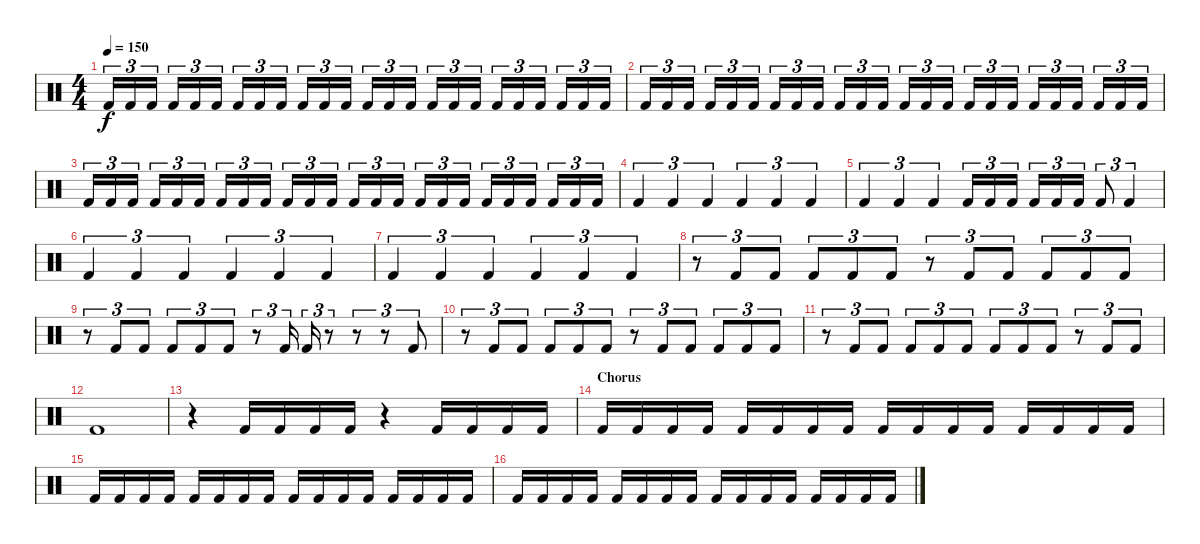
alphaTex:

\track "" {instrument percussion}
\staff {score}
\articulation defaults
\ts (4 4)
\tempo 150
\clef neutral
\ks c "Kick (hit) 2".16{tu (3 2) dy f} "Kick (hit) 2".16{tu (3 2)} "Kick (hit) 2".16{tu (3 2)} "Kick (hit) 2".16{tu (3 2)} "Kick (hit) 2".16{tu (3 2)} "Kick (hit) 2".16{tu (3 2)} "Kick (hit) 2".16{tu (3 2)} "Kick (hit) 2".16{tu (3 2)} "Kick (hit) 2".16{tu (3 2)} "Kick (hit) 2".16{tu (3 2)} "Kick (hit) 2".16{tu (3 2)} "Kick (hit) 2".16{tu (3 2)} "Kick (hit) 2".16{tu (3 2)} "Kick (hit) 2".16{tu (3 2)} "Kick (hit) 2".16{tu (3 2)} "Kick (hit) 2".16{tu (3 2)} "Kick (hit) 2".16{tu (3 2)} "Kick (hit) 2".16{tu (3 2)} "Kick (hit) 2".16{tu (3 2)} "Kick (hit) 2".16{tu (3 2)} "Kick (hit) 2".16{tu (3 2)} "Kick (hit) 2".16{tu (3 2)} "Kick (hit) 2".16{tu (3 2)} "Kick (hit) 2".16{tu (3 2)}
|
"Kick (hit) 2".16{tu (3 2)} "Kick (hit) 2".16{tu (3 2)} "Kick (hit) 2".16{tu (3 2)} "Kick (hit) 2".16{tu (3 2)} "Kick (hit) 2".16{tu (3 2)} "Kick (hit) 2".16{tu (3 2)} "Kick (hit) 2".16{tu (3 2)} "Kick (hit) 2".16{tu (3 2)} "Kick (hit) 2".16{tu (3 2)} "Kick (hit) 2".16{tu (3 2)} "Kick (hit) 2".16{tu (3 2)} "Kick (hit) 2".16{tu (3 2)} "Kick (hit) 2".16{tu (3 2)} "Kick (hit) 2".16{tu (3 2)} "Kick (hit) 2".16{tu (3 2)} "Kick (hit) 2".16{tu (3 2)} "Kick (hit) 2".16{tu (3 2)} "Kick (hit) 2".16{tu (3 2)} "Kick (hit) 2".16{tu (3 2)} "Kick (hit) 2".16{tu (3 2)} "Kick (hit) 2".16{tu (3 2)} "Kick (hit) 2".16{tu (3 2)} "Kick (hit) 2".16{tu (3 2)} "Kick (hit) 2".16{tu (3 2)} |
"Kick (hit) 2".16{tu (3 2)} "Kick (hit) 2".16{tu (3 2)} "Kick (hit) 2".16{tu (3 2)} "Kick (hit) 2".16{tu (3 2)} "Kick (hit) 2".16{tu (3 2)} "Kick (hit) 2".16{tu (3 2)} "Kick (hit) 2".16{tu (3 2)} "Kick (hit) 2".16{tu (3 2)} "Kick (hit) 2".16{tu (3 2)} "Kick (hit) 2".16{tu (3 2)} "Kick (hit) 2".16{tu (3 2)} "Kick (hit) 2".16{tu (3 2)} "Kick (hit) 2".16{tu (3 2)} "Kick (hit) 2".16{tu (3 2)} "Kick (hit) 2".16{tu (3 2)} "Kick (hit) 2".16{tu (3 2)} "Kick (hit) 2".16{tu (3 2)} "Kick (hit) 2".16{tu (3 2)} "Kick (hit) 2".16{tu (3 2)} "Kick (hit) 2".16{tu (3 2)} "Kick (hit) 2".16{tu (3 2)} "Kick (hit) 2".16{tu (3 2)} "Kick (hit) 2".16{tu (3 2)} "Kick (hit) 2".16{tu (3 2)} |
"Kick (hit) 2".4{tu (3 2)} "Kick (hit) 2".4{tu (3 2)} "Kick (hit) 2".4{tu (3 2)} "Kick (hit) 2".4{tu (3 2)} "Kick (hit) 2".4{tu (3 2)} "Kick (hit) 2".4{tu (3 2)} |
"Kick (hit) 2".4{tu (3 2)} "Kick (hit) 2".4{tu (3 2)} "Kick (hit) 2".4{tu (3 2)} "Kick (hit) 2".16{tu (3 2)} "Kick (hit) 2".16{tu (3 2)} "Kick (hit) 2".16{tu (3 2)} "Kick (hit) 2".16{tu (3 2)} "Kick (hit) 2".16{tu (3 2)} "Kick (hit) 2".16{tu (3 2)} "Kick (hit) 2".8{tu (3 2)} "Kick (hit) 2".4{tu (3 2)} |
"Kick (hit) 2".4{tu (3 2)} "Kick (hit) 2".4{tu (3 2)} "Kick (hit) 2".4{tu (3 2)} "Kick (hit) 2".4{tu (3 2)} "Kick (hit) 2".4{tu (3 2)} "Kick (hit) 2".4{tu (3 2)} |
"Kick (hit) 2".4{tu (3 2)} "Kick (hit) 2".4{tu (3 2)} "Kick (hit) 2".4{tu (3 2)} "Kick (hit) 2".4{tu (3 2)} "Kick (hit) 2".4{tu (3 2)} "Kick (hit) 2".4{tu (3 2)} |
r.8{tu (3 2)} "Kick (hit) 2".8{tu (3 2)} "Kick (hit) 2".8{tu (3 2)} "Kick (hit) 2".8{tu (3 2)} "Kick (hit) 2".8{tu (3 2)} "Kick (hit) 2".8{tu (3 2)} r.8{tu (3 2)} "Kick (hit) 2".8{tu (3 2)} "Kick (hit) 2".8{tu (3 2)} "Kick (hit) 2".8{tu (3 2)} "Kick (hit) 2".8{tu (3 2)} "Kick (hit) 2".8{tu (3 2)} |
r.8{tu (3 2)} "Kick (hit) 2".8{tu (3 2)} "Kick (hit) 2".8{tu (3 2)} "Kick (hit) 2".8{tu (3 2)} "Kick (hit) 2".8{tu (3 2)} "Kick (hit) 2".8{tu (3 2)} r.8{tu (3 2)} "Kick (hit) 2".16{tu (3 2)} "Kick (hit) 2".16{tu (3 2)} r.8{tu (3 2)} r.8{tu (3 2)} r.8{tu (3 2)} "Kick (hit) 2".8{tu (3 2)} |
r.8{tu (3 2)} "Kick (hit) 2".8{tu (3 2)} "Kick (hit) 2".8{tu (3 2)} "Kick (hit) 2".8{tu (3 2)} "Kick (hit) 2".8{tu (3 2)} "Kick (hit) 2".8{tu (3 2)} r.8{tu (3 2)} "Kick (hit) 2".8{tu (3 2)} "Kick (hit) 2".8{tu (3 2)} "Kick (hit) 2".8{tu (3 2)} "Kick (hit) 2".8{tu (3 2)} "Kick (hit) 2".8{tu (3 2)} |
r.8{tu (3 2)} "Kick (hit) 2".8{tu (3 2)} "Kick (hit) 2".8{tu (3 2)} "Kick (hit) 2".8{tu (3 2)} "Kick (hit) 2".8{tu (3 2)} "Kick (hit) 2".8{tu (3 2)} "Kick (hit) 2".8{tu (3 2)} "Kick (hit) 2".8{tu (3 2)} "Kick (hit) 2".8{tu (3 2)} r.8{tu (3 2)} "Kick (hit) 2".8{tu (3 2)} "Kick (hit) 2".8{tu (3 2)} |
"Kick (hit) 2".1 |
r.4 "Kick (hit) 2".16 "Kick (hit) 2".16 "Kick (hit) 2".16 "Kick (hit) 2".16 r.4 "Kick (hit) 2".16 "Kick (hit) 2".16 "Kick (hit) 2".16 "Kick (hit) 2".16 |
\section ("" "Chorus")
"Kick (hit) 2".16 "Kick (hit) 2".16 "Kick (hit) 2".16 "Kick (hit) 2".16 "Kick (hit) 2".16 "Kick (hit) 2".16 "Kick (hit) 2".16 "Kick (hit) 2".16 "Kick (hit) 2".16 "Kick (hit) 2".16 "Kick (hit) 2".16 "Kick (hit) 2".16 "Kick (hit) 2".16 "Kick (hit) 2".16 "Kick (hit) 2".16 "Kick (hit) 2".16 |
"Kick (hit) 2".16 "Kick (hit) 2".16 "Kick (hit) 2".16 "Kick (hit) 2".16 "Kick (hit) 2".16 "Kick (hit) 2".16 "Kick (hit) 2".16 "Kick (hit) 2".16 "Kick (hit) 2".16 "Kick (hit) 2".16 "Kick (hit) 2".16 "Kick (hit) 2".16 "Kick (hit) 2".16 "Kick (hit) 2".16 "Kick (hit) 2".16 "Kick (hit) 2".16 |
"Kick (hit) 2".16 "Kick (hit) 2".16 "Kick (hit) 2".16 "Kick (hit) 2".16 "Kick (hit) 2".16 "Kick (hit) 2".16 "Kick (hit) 2".16 "Kick (hit) 2".16 "Kick (hit) 2".16 "Kick (hit) 2".16 "Kick (hit) 2".16 "Kick (hit) 2".16 "Kick (hit) 2".16 "Kick (hit) 2".16 "Kick (hit) 2".16 "Kick (hit) 2".16
